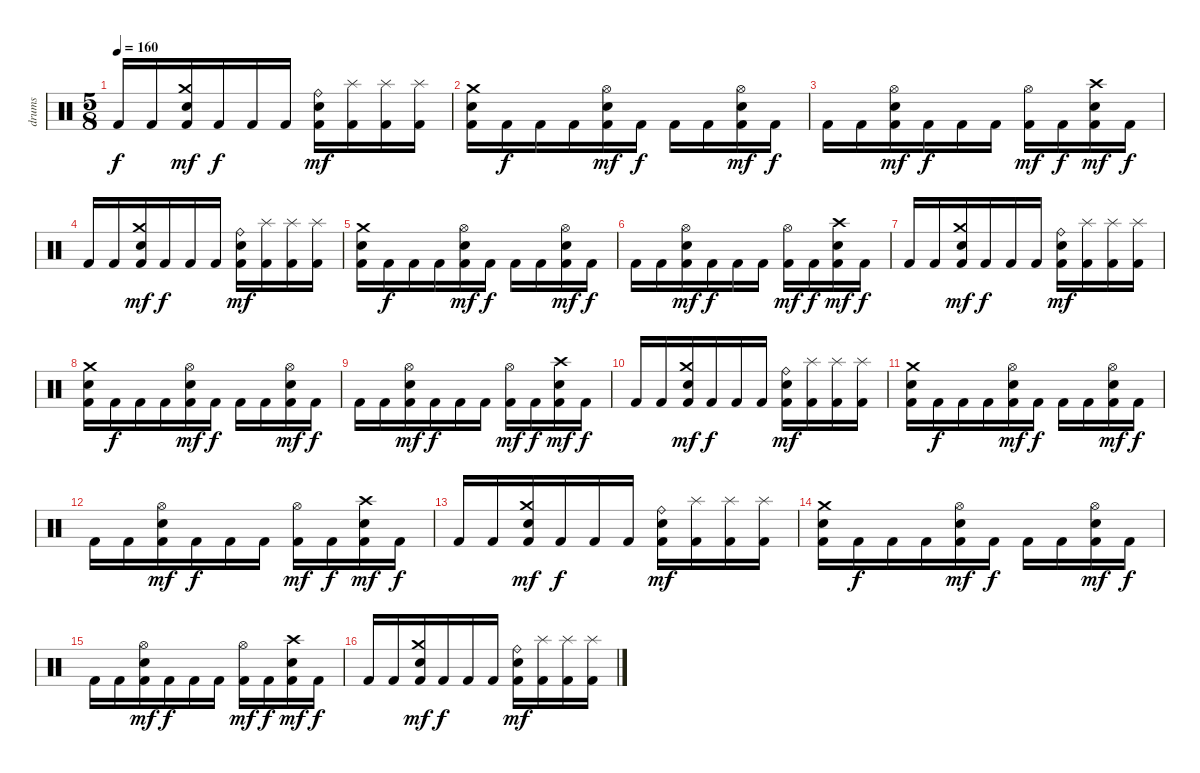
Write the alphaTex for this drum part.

\track ("drums" "drums") {instrument percussion}
\staff {score}
\articulation defaults
\ts (5 8)
\tempo 160
\clef neutral
\ks c "Kick (hit) 2".16{dy f} "Kick (hit) 2".16
("Crash medium (hit)" "Snare (hit) 2" "Kick (hit) 2").16{dy mf} "Kick (hit) 2".16{dy f} "Kick (hit) 2".16 "Kick (hit) 2".16 ("Ride (bell)" "Snare (hit) 2" "Kick (hit) 2").16{dy mf} ("Splash (hit)" "Kick (hit) 2").16 ("Splash (hit)" "Kick (hit) 2").16 ("Splash (hit)" "Kick (hit) 2").16 |
("Crash medium (hit)" "Snare (hit) 2" "Kick (hit) 2").16 "Kick (hit) 2".16{dy f} "Kick (hit) 2".16 "Kick (hit) 2".16 ("Hi-Hat (open)" "Snare (hit) 2" "Kick (hit) 2").16{dy mf} "Kick (hit) 2".16{dy f} "Kick (hit) 2".16 "Kick (hit) 2".16 ("Hi-Hat (open)" "Snare (hit) 2" "Kick (hit) 2").16{dy mf} "Kick (hit) 2".16{dy f} |
"Kick (hit) 2".16 "Kick (hit) 2".16 ("Hi-Hat (open)" "Snare (hit) 2" "Kick (hit) 2").16{dy mf} "Kick (hit) 2".16{dy f} "Kick (hit) 2".16 "Kick (hit) 2".16 ("Hi-Hat (open)" "Kick (hit) 2").16{dy mf} "Kick (hit) 2".16{dy f} ("Crash high (hit)" "Snare (hit) 2" "Kick (hit) 2").16{dy mf} "Kick (hit) 2".16{dy f} |
"Kick (hit) 2".16 "Kick (hit) 2".16 ("Crash medium (hit)" "Snare (hit) 2" "Kick (hit) 2").16{dy mf} "Kick (hit) 2".16{dy f} "Kick (hit) 2".16 "Kick (hit) 2".16 ("Ride (bell)" "Snare (hit) 2" "Kick (hit) 2").16{dy mf} ("Splash (hit)" "Kick (hit) 2").16 ("Splash (hit)" "Kick (hit) 2").16 ("Splash (hit)" "Kick (hit) 2").16 |
("Crash medium (hit)" "Snare (hit) 2" "Kick (hit) 2").16 "Kick (hit) 2".16{dy f} "Kick (hit) 2".16 "Kick (hit) 2".16 ("Hi-Hat (open)" "Snare (hit) 2" "Kick (hit) 2").16{dy mf} "Kick (hit) 2".16{dy f} "Kick (hit) 2".16 "Kick (hit) 2".16 ("Hi-Hat (open)" "Snare (hit) 2" "Kick (hit) 2").16{dy mf} "Kick (hit) 2".16{dy f} |
"Kick (hit) 2".16 "Kick (hit) 2".16 ("Hi-Hat (open)" "Snare (hit) 2" "Kick (hit) 2").16{dy mf} "Kick (hit) 2".16{dy f} "Kick (hit) 2".16 "Kick (hit) 2".16 ("Hi-Hat (open)" "Kick (hit) 2").16{dy mf} "Kick (hit) 2".16{dy f} ("Crash high (hit)" "Snare (hit) 2" "Kick (hit) 2").16{dy mf} "Kick (hit) 2".16{dy f} |
"Kick (hit) 2".16 "Kick (hit) 2".16 ("Crash medium (hit)" "Snare (hit) 2" "Kick (hit) 2").16{dy mf} "Kick (hit) 2".16{dy f} "Kick (hit) 2".16 "Kick (hit) 2".16 ("Ride (bell)" "Snare (hit) 2" "Kick (hit) 2").16{dy mf} ("Splash (hit)" "Kick (hit) 2").16 ("Splash (hit)" "Kick (hit) 2").16 ("Splash (hit)" "Kick (hit) 2").16 |
("Crash medium (hit)" "Snare (hit) 2" "Kick (hit) 2").16 "Kick (hit) 2".16{dy f} "Kick (hit) 2".16 "Kick (hit) 2".16 ("Hi-Hat (open)" "Snare (hit) 2" "Kick (hit) 2").16{dy mf} "Kick (hit) 2".16{dy f} "Kick (hit) 2".16 "Kick (hit) 2".16 ("Hi-Hat (open)" "Snare (hit) 2" "Kick (hit) 2").16{dy mf} "Kick (hit) 2".16{dy f} |
"Kick (hit) 2".16 "Kick (hit) 2".16 ("Hi-Hat (open)" "Snare (hit) 2" "Kick (hit) 2").16{dy mf} "Kick (hit) 2".16{dy f} "Kick (hit) 2".16 "Kick (hit) 2".16 ("Hi-Hat (open)" "Kick (hit) 2").16{dy mf} "Kick (hit) 2".16{dy f} ("Crash high (hit)" "Snare (hit) 2" "Kick (hit) 2").16{dy mf} "Kick (hit) 2".16{dy f} |
"Kick (hit) 2".16 "Kick (hit) 2".16 ("Crash medium (hit)" "Snare (hit) 2" "Kick (hit) 2").16{dy mf} "Kick (hit) 2".16{dy f} "Kick (hit) 2".16 "Kick (hit) 2".16 ("Ride (bell)" "Snare (hit) 2" "Kick (hit) 2").16{dy mf} ("Splash (hit)" "Kick (hit) 2").16 ("Splash (hit)" "Kick (hit) 2").16 ("Splash (hit)" "Kick (hit) 2").16 |
("Crash medium (hit)" "Snare (hit) 2" "Kick (hit) 2").16 "Kick (hit) 2".16{dy f} "Kick (hit) 2".16 "Kick (hit) 2".16 ("Hi-Hat (open)" "Snare (hit) 2" "Kick (hit) 2").16{dy mf} "Kick (hit) 2".16{dy f} "Kick (hit) 2".16 "Kick (hit) 2".16 ("Hi-Hat (open)" "Snare (hit) 2" "Kick (hit) 2").16{dy mf} "Kick (hit) 2".16{dy f} |
"Kick (hit) 2".16 "Kick (hit) 2".16 ("Hi-Hat (open)" "Snare (hit) 2" "Kick (hit) 2").16{dy mf} "Kick (hit) 2".16{dy f} "Kick (hit) 2".16 "Kick (hit) 2".16 ("Hi-Hat (open)" "Kick (hit) 2").16{dy mf} "Kick (hit) 2".16{dy f} ("Crash high (hit)" "Snare (hit) 2" "Kick (hit) 2").16{dy mf} "Kick (hit) 2".16{dy f} |
"Kick (hit) 2".16 "Kick (hit) 2".16 ("Crash medium (hit)" "Snare (hit) 2" "Kick (hit) 2").16{dy mf} "Kick (hit) 2".16{dy f} "Kick (hit) 2".16 "Kick (hit) 2".16 ("Ride (bell)" "Snare (hit) 2" "Kick (hit) 2").16{dy mf} ("Splash (hit)" "Kick (hit) 2").16 ("Splash (hit)" "Kick (hit) 2").16 ("Splash (hit)" "Kick (hit) 2").16 |
("Crash medium (hit)" "Snare (hit) 2" "Kick (hit) 2").16 "Kick (hit) 2".16{dy f} "Kick (hit) 2".16 "Kick (hit) 2".16 ("Hi-Hat (open)" "Snare (hit) 2" "Kick (hit) 2").16{dy mf} "Kick (hit) 2".16{dy f} "Kick (hit) 2".16 "Kick (hit) 2".16 ("Hi-Hat (open)" "Snare (hit) 2" "Kick (hit) 2").16{dy mf} "Kick (hit) 2".16{dy f} |
"Kick (hit) 2".16 "Kick (hit) 2".16 ("Hi-Hat (open)" "Snare (hit) 2" "Kick (hit) 2").16{dy mf} "Kick (hit) 2".16{dy f} "Kick (hit) 2".16 "Kick (hit) 2".16 ("Hi-Hat (open)" "Kick (hit) 2").16{dy mf} "Kick (hit) 2".16{dy f} ("Crash high (hit)" "Snare (hit) 2" "Kick (hit) 2").16{dy mf} "Kick (hit) 2".16{dy f} |
"Kick (hit) 2".16 "Kick (hit) 2".16 ("Crash medium (hit)" "Snare (hit) 2" "Kick (hit) 2").16{dy mf} "Kick (hit) 2".16{dy f} "Kick (hit) 2".16 "Kick (hit) 2".16 ("Ride (bell)" "Snare (hit) 2" "Kick (hit) 2").16{dy mf} ("Splash (hit)" "Kick (hit) 2").16 ("Splash (hit)" "Kick (hit) 2").16 ("Splash (hit)" "Kick (hit) 2").16
